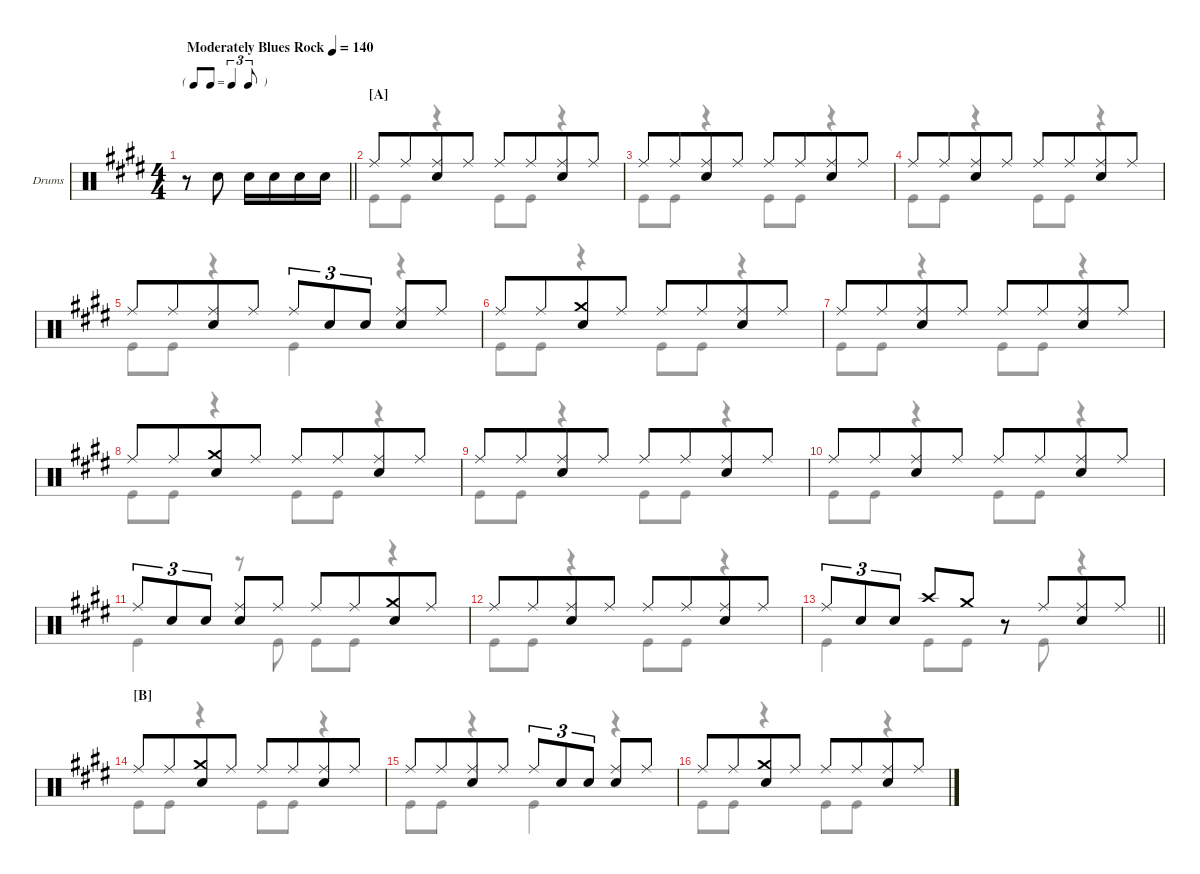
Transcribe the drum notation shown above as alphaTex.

\hideDynamics
\bracketExtendMode groupsimilarinstruments
\firstSystemTrackNameOrientation horizontal
\otherSystemsTrackNameOrientation horizontal
\track ("Drumkit" "Drums") {instrument percussion}
\staff {score}
\articulation defaults
\voice
\ts (4 4)
\tf triplet8th
\ac
\scale
0.344231
\tempo (140 "Moderately Blues Rock")
\accidentals auto
\clef neutral
\ottava regular
\simile none
\scale
0.235383
\barLineRight lightlight
\ks e
r.8{dy f} "Snare (hit) 2".8{beam split} "Snare (hit) 2".16{beam merge} "Snare (hit) 2".16{beam merge} "Snare (hit) 2".16{beam merge} "Snare (hit) 2".16 |
\beaming (8 4 4)
\section ("A" "")
\scale
0.319492
\scale
0.194866 "Ride (middle)".8 "Ride (middle)".8 ("Ride (middle)" "Snare (hit) 2").8 "Ride (middle)".8 "Ride (middle)".8 "Ride (middle)".8 ("Ride (middle)" "Snare (hit) 2").8 "Ride (middle)".8 |
\scale
0.336615
\scale
0.186269 "Ride (middle)".8 "Ride (middle)".8 ("Ride (middle)" "Snare (hit) 2").8 "Ride (middle)".8 "Ride (middle)".8 "Ride (middle)".8 ("Ride (middle)" "Snare (hit) 2").8 "Ride (middle)".8 |
\scale
0.386915
\scale
0.199164 "Ride (middle)".8 "Ride (middle)".8 ("Ride (middle)" "Snare (hit) 2").8 "Ride (middle)".8 "Ride (middle)".8 "Ride (middle)".8 ("Ride (middle)" "Snare (hit) 2").8 "Ride (middle)".8 |
\scale
0.313479
\scale
0.185183 "Ride (middle)".8 "Ride (middle)".8 ("Ride (middle)" "Snare (hit) 2").8 "Ride (middle)".8 "Ride (middle)".8{tu (3 2)} "Snare (hit) 2".8{tu (3 2)} "Snare (hit) 2".8{tu (3 2)} ("Ride (middle)" "Snare (hit) 2").8 "Ride (middle)".8 |
\scale
0.299083 "Ride (middle)".8 "Ride (middle)".8 ("Crash medium (hit)" "Snare (hit) 2").8 "Ride (middle)".8 "Ride (middle)".8 "Ride (middle)".8 ("Ride (middle)" "Snare (hit) 2").8 "Ride (middle)".8 |
\scale
0.391949 "Ride (middle)".8 "Ride (middle)".8 ("Ride (middle)" "Snare (hit) 2").8 "Ride (middle)".8 "Ride (middle)".8 "Ride (middle)".8 ("Ride (middle)" "Snare (hit) 2").8 "Ride (middle)".8 |
\scale
0.298171 "Ride (middle)".8 "Ride (middle)".8 ("Crash medium (hit)" "Snare (hit) 2").8 "Ride (middle)".8 "Ride (middle)".8 "Ride (middle)".8 ("Ride (middle)" "Snare (hit) 2").8 "Ride (middle)".8 |
\scale
0.311989 "Ride (middle)".8 "Ride (middle)".8 ("Ride (middle)" "Snare (hit) 2").8 "Ride (middle)".8 "Ride (middle)".8 "Ride (middle)".8 ("Ride (middle)" "Snare (hit) 2").8 "Ride (middle)".8 |
\scale
0.376679 "Ride (middle)".8 "Ride (middle)".8 ("Ride (middle)" "Snare (hit) 2").8 "Ride (middle)".8 "Ride (middle)".8 "Ride (middle)".8 ("Ride (middle)" "Snare (hit) 2").8 "Ride (middle)".8 |
\scale
0.307274 "Ride (middle)".8{tu (3 2)} "Snare (hit) 2".8{tu (3 2)} "Snare (hit) 2".8{tu (3 2)} ("Ride (middle)" "Snare (hit) 2").8 "Ride (middle)".8 "Ride (middle)".8 "Ride (middle)".8 ("Crash medium (hit)" "Snare (hit) 2").8 "Ride (middle)".8 |
\scale
0.31612 "Ride (middle)".8 "Ride (middle)".8 ("Ride (middle)" "Snare (hit) 2").8 "Ride (middle)".8 "Ride (middle)".8 "Ride (middle)".8 ("Ride (middle)" "Snare (hit) 2").8 "Ride (middle)".8 |
\scale
0.400353
\barLineRight lightlight "Ride (middle)".8{tu (3 2)} "Snare (hit) 2".8{tu (3 2)} "Snare (hit) 2".8{tu (3 2)} "Crash high (hit)".8 "Crash medium (hit)".8
r.8 "Ride (middle)".8 ("Ride (middle)" "Snare (hit) 2").8 "Ride (middle)".8 |
\section ("B" "")
\scale
0.298199 "Ride (middle)".8 "Ride (middle)".8 ("Crash medium (hit)" "Snare (hit) 2").8 "Ride (middle)".8 "Ride (middle)".8 "Ride (middle)".8 ("Ride (middle)" "Snare (hit) 2").8 "Ride (middle)".8 |
\scale
0.30158 "Ride (middle)".8 "Ride (middle)".8 ("Ride (middle)" "Snare (hit) 2").8 "Ride (middle)".8 "Ride (middle)".8{tu (3 2)} "Snare (hit) 2".8{tu (3 2)} "Snare (hit) 2".8{tu (3 2)} ("Ride (middle)" "Snare (hit) 2").8 "Ride (middle)".8 |
\scale
0.401011 "Ride (middle)".8 "Ride (middle)".8 ("Crash medium (hit)" "Snare (hit) 2").8 "Ride (middle)".8 "Ride (middle)".8 "Ride (middle)".8 ("Ride (middle)" "Snare (hit) 2").8 "Ride (middle)".8
\voice
\clef neutral
\ottava regular
\simile none
\scale
0.235383
\barLineRight lightlight
\ks e
|
\scale
0.194866 "Kick (hit)".8 "Kick (hit)".8 r.4 "Kick (hit)".8 "Kick (hit)".8 r.4 |
\scale
0.186269 "Kick (hit)".8 "Kick (hit)".8 r.4 "Kick (hit)".8 "Kick (hit)".8 r.4 |
\scale
0.199164 "Kick (hit)".8 "Kick (hit)".8 r.4 "Kick (hit)".8 "Kick (hit)".8 r.4 |
\scale
0.185183 "Kick (hit)".8 "Kick (hit)".8 r.4 "Kick (hit)".4 r.4 |
"Kick (hit)".8 "Kick (hit)".8 r.4 "Kick (hit)".8 "Kick (hit)".8 r.4 |
"Kick (hit)".8 "Kick (hit)".8 r.4 "Kick (hit)".8 "Kick (hit)".8 r.4 |
"Kick (hit)".8 "Kick (hit)".8 r.4 "Kick (hit)".8 "Kick (hit)".8 r.4 |
"Kick (hit)".8 "Kick (hit)".8 r.4 "Kick (hit)".8 "Kick (hit)".8 r.4 |
"Kick (hit)".8 "Kick (hit)".8 r.4 "Kick (hit)".8 "Kick (hit)".8 r.4 |
"Kick (hit)".4 r.8 "Kick (hit)".8 "Kick (hit)".8 "Kick (hit)".8 r.4 |
"Kick (hit)".8 "Kick (hit)".8 r.4 "Kick (hit)".8 "Kick (hit)".8 r.4 |
\barLineRight lightlight "Kick (hit)".4 "Kick (hit)".8 "Kick (hit)".8
r.8 "Kick (hit)".8 r.4 |
"Kick (hit)".8 "Kick (hit)".8 r.4 "Kick (hit)".8 "Kick (hit)".8 r.4 |
"Kick (hit)".8 "Kick (hit)".8 r.4 "Kick (hit)".4 r.4 |
"Kick (hit)".8 "Kick (hit)".8 r.4 "Kick (hit)".8 "Kick (hit)".8 r.4
